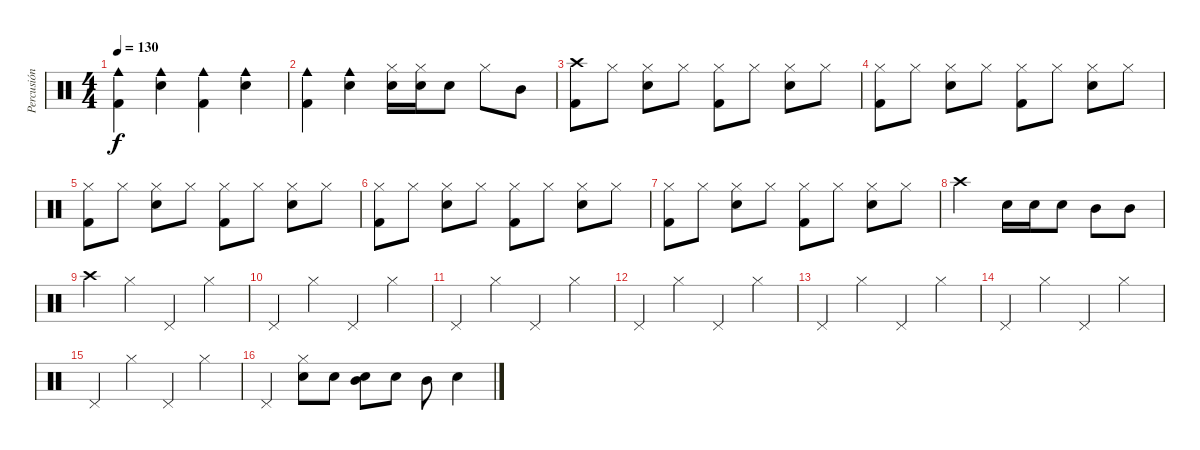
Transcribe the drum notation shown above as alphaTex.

\track ("Percusión" "Percusión") {instrument percussion}
\staff {score}
\articulation defaults
\ts (4 4)
\tempo 130
\clef neutral
\ks c
("Cowbell medium (hit)" "Kick (hit) 2").4{dy f} ("Cowbell medium (hit)" "Snare (hit) 2").4 ("Cowbell medium (hit)" "Kick (hit) 2").4 ("Cowbell medium (hit)" "Snare (hit) 2").4 |
("Cowbell medium (hit)" "Kick (hit) 2").4 ("Cowbell medium (hit)" "Snare (hit) 2").4 ("Hi-Hat (closed)" "Snare (hit) 2").16 ("Hi-Hat (closed)" "Snare (hit) 2").16 "Snare (hit) 2".8 "Hi-Hat (closed)".8 "Mid Tom (hit)".8 |
("Crash high (hit)" "Kick (hit) 2").8 "Hi-Hat (closed)".8 ("Hi-Hat (closed)" "Snare (hit) 2").8 "Hi-Hat (closed)".8 ("Hi-Hat (closed)" "Kick (hit) 2").8 "Hi-Hat (closed)".8 ("Hi-Hat (closed)" "Snare (hit) 2").8 "Hi-Hat (closed)".8 |
("Hi-Hat (closed)" "Kick (hit) 2").8 "Hi-Hat (closed)".8 ("Hi-Hat (closed)" "Snare (hit) 2").8 "Hi-Hat (closed)".8 ("Hi-Hat (closed)" "Kick (hit) 2").8 "Hi-Hat (closed)".8 ("Hi-Hat (closed)" "Snare (hit) 2").8 "Hi-Hat (closed)".8 |
("Hi-Hat (closed)" "Kick (hit) 2").8 "Hi-Hat (closed)".8 ("Hi-Hat (closed)" "Snare (hit) 2").8 "Hi-Hat (closed)".8 ("Hi-Hat (closed)" "Kick (hit) 2").8 "Hi-Hat (closed)".8 ("Hi-Hat (closed)" "Snare (hit) 2").8 "Hi-Hat (closed)".8 |
("Hi-Hat (closed)" "Kick (hit) 2").8 "Hi-Hat (closed)".8 ("Hi-Hat (closed)" "Snare (hit) 2").8 "Hi-Hat (closed)".8 ("Hi-Hat (closed)" "Kick (hit) 2").8 "Hi-Hat (closed)".8 ("Hi-Hat (closed)" "Snare (hit) 2").8 "Hi-Hat (closed)".8 |
("Hi-Hat (closed)" "Kick (hit) 2").8 "Hi-Hat (closed)".8 ("Hi-Hat (closed)" "Snare (hit) 2").8 "Hi-Hat (closed)".8 ("Hi-Hat (closed)" "Kick (hit) 2").8 "Hi-Hat (closed)".8 ("Hi-Hat (closed)" "Snare (hit) 2").8 "Hi-Hat (closed)".8 |
"Crash high (hit)".2 "Snare (hit) 2".16 "Snare (hit) 2".16 "Snare (hit) 2".8 "Mid Tom (hit)".8 "Mid Tom (hit)".8 |
"Crash high (hit)".4 "Hi-Hat (closed)".4 "Pedal Hi-Hat (hit)".4 "Hi-Hat (closed)".4 |
"Pedal Hi-Hat (hit)".4 "Hi-Hat (closed)".4 "Pedal Hi-Hat (hit)".4 "Hi-Hat (closed)".4 |
"Pedal Hi-Hat (hit)".4 "Hi-Hat (closed)".4 "Pedal Hi-Hat (hit)".4 "Hi-Hat (closed)".4 |
"Pedal Hi-Hat (hit)".4 "Hi-Hat (closed)".4 "Pedal Hi-Hat (hit)".4 "Hi-Hat (closed)".4 |
"Pedal Hi-Hat (hit)".4 "Hi-Hat (closed)".4 "Pedal Hi-Hat (hit)".4 "Hi-Hat (closed)".4 |
"Pedal Hi-Hat (hit)".4 "Hi-Hat (closed)".4 "Pedal Hi-Hat (hit)".4 "Hi-Hat (closed)".4 |
"Pedal Hi-Hat (hit)".4 "Hi-Hat (closed)".4 "Pedal Hi-Hat (hit)".4 "Hi-Hat (closed)".4 |
"Pedal Hi-Hat (hit)".4 ("Hi-Hat (closed)" "Snare (hit) 2").8 "Snare (hit) 2".8 ("Mid Tom (hit)" "Electric Snare (hit)").8 "Snare (hit) 2".8 "Mid Tom (hit)".8 "Snare (hit) 2".4
